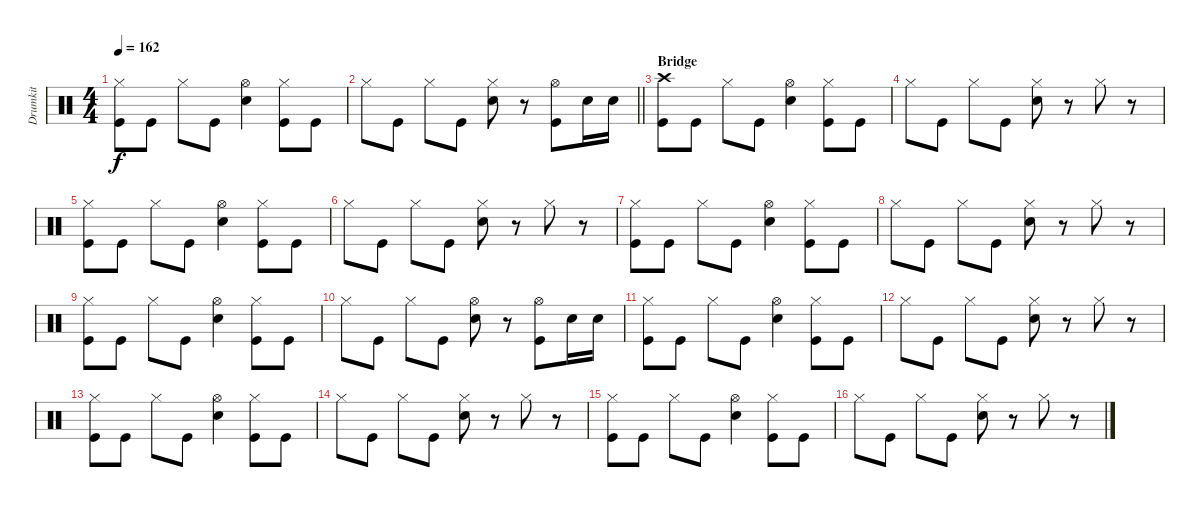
\track ("Drumkit" "Drumkit") {instrument percussion}
\staff {score}
\articulation defaults
\ts (4 4)
\tempo 162
\clef neutral
\ks c
("Kick (hit)" "Hi-Hat (closed)").8{dy f} "Kick (hit)".8 "Hi-Hat (closed)".8 "Kick (hit)".8 ("Snare (hit) 2" "Hi-Hat (open)").4 ("Kick (hit)" "Hi-Hat (closed)").8 "Kick (hit)".8 |
\barLineRight lightlight "Hi-Hat (closed)".8 "Kick (hit)".8 "Hi-Hat (closed)".8 "Kick (hit)".8
("Snare (hit) 2" "Hi-Hat (closed)").8 r.8 ("Hi-Hat (open)" "Kick (hit)").8 "Snare (hit) 2".16 "Snare (hit) 2".16 |
\section ("" "Bridge")
("Kick (hit)" "Crash high (hit)").8 "Kick (hit)".8 "Hi-Hat (closed)".8 "Kick (hit)".8 ("Snare (hit) 2" "Hi-Hat (open)").4 ("Kick (hit)" "Hi-Hat (closed)").8 "Kick (hit)".8 |
"Hi-Hat (closed)".8 "Kick (hit)".8 "Hi-Hat (closed)".8 "Kick (hit)".8 ("Snare (hit) 2" "Hi-Hat (closed)").8 r.8 "Hi-Hat (closed)".8 r.8 |
("Kick (hit)" "Hi-Hat (closed)").8 "Kick (hit)".8 "Hi-Hat (closed)".8 "Kick (hit)".8 ("Snare (hit) 2" "Hi-Hat (open)").4 ("Kick (hit)" "Hi-Hat (closed)").8 "Kick (hit)".8 |
"Hi-Hat (closed)".8 "Kick (hit)".8 "Hi-Hat (closed)".8 "Kick (hit)".8 ("Snare (hit) 2" "Hi-Hat (closed)").8 r.8 "Hi-Hat (closed)".8 r.8 |
("Kick (hit)" "Hi-Hat (closed)").8 "Kick (hit)".8 "Hi-Hat (closed)".8 "Kick (hit)".8 ("Snare (hit) 2" "Hi-Hat (open)").4 ("Kick (hit)" "Hi-Hat (closed)").8 "Kick (hit)".8 |
"Hi-Hat (closed)".8 "Kick (hit)".8 "Hi-Hat (closed)".8 "Kick (hit)".8 ("Snare (hit) 2" "Hi-Hat (closed)").8 r.8 "Hi-Hat (closed)".8 r.8 |
("Kick (hit)" "Hi-Hat (closed)").8 "Kick (hit)".8 "Hi-Hat (closed)".8 "Kick (hit)".8 ("Snare (hit) 2" "Hi-Hat (open)").4 ("Kick (hit)" "Hi-Hat (closed)").8 "Kick (hit)".8 |
"Hi-Hat (closed)".8 "Kick (hit)".8 "Hi-Hat (closed)".8 "Kick (hit)".8 ("Snare (hit) 2" "Hi-Hat (open)").8 r.8 ("Hi-Hat (open)" "Kick (hit)").8 "Snare (hit) 2".16 "Snare (hit) 2".16 |
("Kick (hit)" "Hi-Hat (closed)").8 "Kick (hit)".8 "Hi-Hat (closed)".8 "Kick (hit)".8 ("Snare (hit) 2" "Hi-Hat (open)").4 ("Kick (hit)" "Hi-Hat (closed)").8 "Kick (hit)".8 |
"Hi-Hat (closed)".8 "Kick (hit)".8 "Hi-Hat (closed)".8 "Kick (hit)".8 ("Snare (hit) 2" "Hi-Hat (closed)").8 r.8 "Hi-Hat (closed)".8 r.8 |
("Kick (hit)" "Hi-Hat (closed)").8 "Kick (hit)".8 "Hi-Hat (closed)".8 "Kick (hit)".8 ("Snare (hit) 2" "Hi-Hat (open)").4 ("Kick (hit)" "Hi-Hat (closed)").8 "Kick (hit)".8 |
"Hi-Hat (closed)".8 "Kick (hit)".8 "Hi-Hat (closed)".8 "Kick (hit)".8 ("Snare (hit) 2" "Hi-Hat (closed)").8 r.8 "Hi-Hat (closed)".8 r.8 |
("Kick (hit)" "Hi-Hat (closed)").8 "Kick (hit)".8 "Hi-Hat (closed)".8 "Kick (hit)".8 ("Snare (hit) 2" "Hi-Hat (open)").4 ("Kick (hit)" "Hi-Hat (closed)").8 "Kick (hit)".8 |
"Hi-Hat (closed)".8 "Kick (hit)".8 "Hi-Hat (closed)".8 "Kick (hit)".8 ("Snare (hit) 2" "Hi-Hat (closed)").8 r.8 "Hi-Hat (closed)".8 r.8
